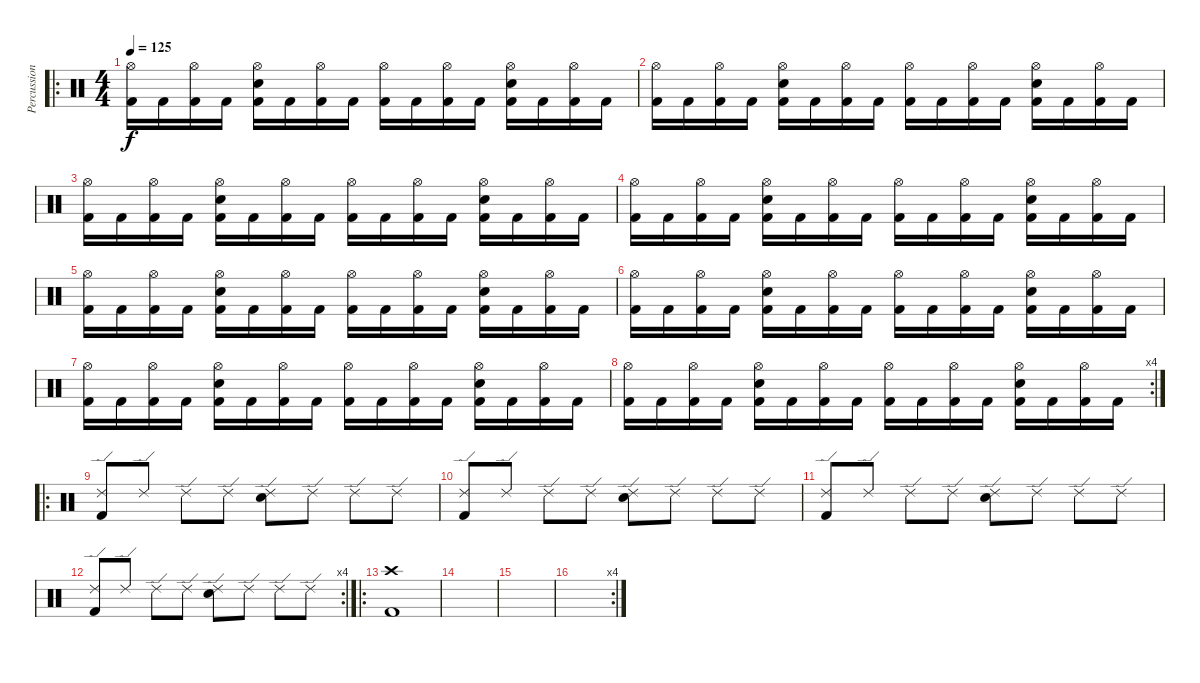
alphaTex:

\track ("Percussion" "Percussion") {instrument percussion}
\staff {score}
\articulation defaults
\ro
\ts (4 4)
\tempo 125
\clef neutral
\ks c
("Hi-Hat (open)" "Kick (hit) 2").16{dy f} "Kick (hit) 2".16 ("Hi-Hat (open)" "Kick (hit) 2").16 "Kick (hit) 2".16 ("Hi-Hat (open)" "Electric Snare (hit)" "Kick (hit) 2").16 "Kick (hit) 2".16 ("Hi-Hat (open)" "Kick (hit) 2").16 "Kick (hit) 2".16 ("Hi-Hat (open)" "Kick (hit) 2").16 "Kick (hit) 2".16 ("Hi-Hat (open)" "Kick (hit) 2").16 "Kick (hit) 2".16 ("Hi-Hat (open)" "Electric Snare (hit)" "Kick (hit) 2").16 "Kick (hit) 2".16 ("Hi-Hat (open)" "Kick (hit) 2").16 "Kick (hit) 2".16 |
("Hi-Hat (open)" "Kick (hit) 2").16 "Kick (hit) 2".16 ("Hi-Hat (open)" "Kick (hit) 2").16 "Kick (hit) 2".16 ("Hi-Hat (open)" "Electric Snare (hit)" "Kick (hit) 2").16 "Kick (hit) 2".16 ("Hi-Hat (open)" "Kick (hit) 2").16 "Kick (hit) 2".16 ("Hi-Hat (open)" "Kick (hit) 2").16 "Kick (hit) 2".16 ("Hi-Hat (open)" "Kick (hit) 2").16 "Kick (hit) 2".16 ("Hi-Hat (open)" "Electric Snare (hit)" "Kick (hit) 2").16 "Kick (hit) 2".16 ("Hi-Hat (open)" "Kick (hit) 2").16 "Kick (hit) 2".16 |
("Hi-Hat (open)" "Kick (hit) 2").16 "Kick (hit) 2".16 ("Hi-Hat (open)" "Kick (hit) 2").16 "Kick (hit) 2".16 ("Hi-Hat (open)" "Electric Snare (hit)" "Kick (hit) 2").16 "Kick (hit) 2".16 ("Hi-Hat (open)" "Kick (hit) 2").16 "Kick (hit) 2".16 ("Hi-Hat (open)" "Kick (hit) 2").16 "Kick (hit) 2".16 ("Hi-Hat (open)" "Kick (hit) 2").16 "Kick (hit) 2".16 ("Hi-Hat (open)" "Electric Snare (hit)" "Kick (hit) 2").16 "Kick (hit) 2".16 ("Hi-Hat (open)" "Kick (hit) 2").16 "Kick (hit) 2".16 |
("Hi-Hat (open)" "Kick (hit) 2").16 "Kick (hit) 2".16 ("Hi-Hat (open)" "Kick (hit) 2").16 "Kick (hit) 2".16 ("Hi-Hat (open)" "Electric Snare (hit)" "Kick (hit) 2").16 "Kick (hit) 2".16 ("Hi-Hat (open)" "Kick (hit) 2").16 "Kick (hit) 2".16 ("Hi-Hat (open)" "Kick (hit) 2").16 "Kick (hit) 2".16 ("Hi-Hat (open)" "Kick (hit) 2").16 "Kick (hit) 2".16 ("Hi-Hat (open)" "Electric Snare (hit)" "Kick (hit) 2").16 "Kick (hit) 2".16 ("Hi-Hat (open)" "Kick (hit) 2").16 "Kick (hit) 2".16 |
("Hi-Hat (open)" "Kick (hit) 2").16 "Kick (hit) 2".16 ("Hi-Hat (open)" "Kick (hit) 2").16 "Kick (hit) 2".16 ("Hi-Hat (open)" "Electric Snare (hit)" "Kick (hit) 2").16 "Kick (hit) 2".16 ("Hi-Hat (open)" "Kick (hit) 2").16 "Kick (hit) 2".16 ("Hi-Hat (open)" "Kick (hit) 2").16 "Kick (hit) 2".16 ("Hi-Hat (open)" "Kick (hit) 2").16 "Kick (hit) 2".16 ("Hi-Hat (open)" "Electric Snare (hit)" "Kick (hit) 2").16 "Kick (hit) 2".16 ("Hi-Hat (open)" "Kick (hit) 2").16 "Kick (hit) 2".16 |
("Hi-Hat (open)" "Kick (hit) 2").16 "Kick (hit) 2".16 ("Hi-Hat (open)" "Kick (hit) 2").16 "Kick (hit) 2".16 ("Hi-Hat (open)" "Electric Snare (hit)" "Kick (hit) 2").16 "Kick (hit) 2".16 ("Hi-Hat (open)" "Kick (hit) 2").16 "Kick (hit) 2".16 ("Hi-Hat (open)" "Kick (hit) 2").16 "Kick (hit) 2".16 ("Hi-Hat (open)" "Kick (hit) 2").16 "Kick (hit) 2".16 ("Hi-Hat (open)" "Electric Snare (hit)" "Kick (hit) 2").16 "Kick (hit) 2".16 ("Hi-Hat (open)" "Kick (hit) 2").16 "Kick (hit) 2".16 |
("Hi-Hat (open)" "Kick (hit) 2").16 "Kick (hit) 2".16 ("Hi-Hat (open)" "Kick (hit) 2").16 "Kick (hit) 2".16 ("Hi-Hat (open)" "Electric Snare (hit)" "Kick (hit) 2").16 "Kick (hit) 2".16 ("Hi-Hat (open)" "Kick (hit) 2").16 "Kick (hit) 2".16 ("Hi-Hat (open)" "Kick (hit) 2").16 "Kick (hit) 2".16 ("Hi-Hat (open)" "Kick (hit) 2").16 "Kick (hit) 2".16 ("Hi-Hat (open)" "Electric Snare (hit)" "Kick (hit) 2").16 "Kick (hit) 2".16 ("Hi-Hat (open)" "Kick (hit) 2").16 "Kick (hit) 2".16 |
\rc 4
("Hi-Hat (open)" "Kick (hit) 2").16 "Kick (hit) 2".16 ("Hi-Hat (open)" "Kick (hit) 2").16 "Kick (hit) 2".16 ("Hi-Hat (open)" "Electric Snare (hit)" "Kick (hit) 2").16 "Kick (hit) 2".16 ("Hi-Hat (open)" "Kick (hit) 2").16 "Kick (hit) 2".16 ("Hi-Hat (open)" "Kick (hit) 2").16 "Kick (hit) 2".16 ("Hi-Hat (open)" "Kick (hit) 2").16 "Kick (hit) 2".16 ("Hi-Hat (open)" "Electric Snare (hit)" "Kick (hit) 2").16 "Kick (hit) 2".16 ("Hi-Hat (open)" "Kick (hit) 2").16 "Kick (hit) 2".16 |
\ro
("Ride (edge) 2" "Kick (hit) 2").8 "Ride (edge) 2".8 "Ride (edge) 2".8 "Ride (edge) 2".8 ("Ride (edge) 2" "Electric Snare (hit)").8 "Ride (edge) 2".8 "Ride (edge) 2".8 "Ride (edge) 2".8 |
("Ride (edge) 2" "Kick (hit) 2").8 "Ride (edge) 2".8 "Ride (edge) 2".8 "Ride (edge) 2".8 ("Ride (edge) 2" "Electric Snare (hit)").8 "Ride (edge) 2".8 "Ride (edge) 2".8 "Ride (edge) 2".8 |
("Ride (edge) 2" "Kick (hit) 2").8 "Ride (edge) 2".8 "Ride (edge) 2".8 "Ride (edge) 2".8 ("Ride (edge) 2" "Electric Snare (hit)").8 "Ride (edge) 2".8 "Ride (edge) 2".8 "Ride (edge) 2".8 |
\rc 4
("Ride (edge) 2" "Kick (hit) 2").8 "Ride (edge) 2".8 "Ride (edge) 2".8 "Ride (edge) 2".8 ("Ride (edge) 2" "Electric Snare (hit)").8 "Ride (edge) 2".8 "Ride (edge) 2".8 "Ride (edge) 2".8 |
\ro
("Crash high (hit)" "Kick (hit) 2").1 |
|
|
\rc 4
